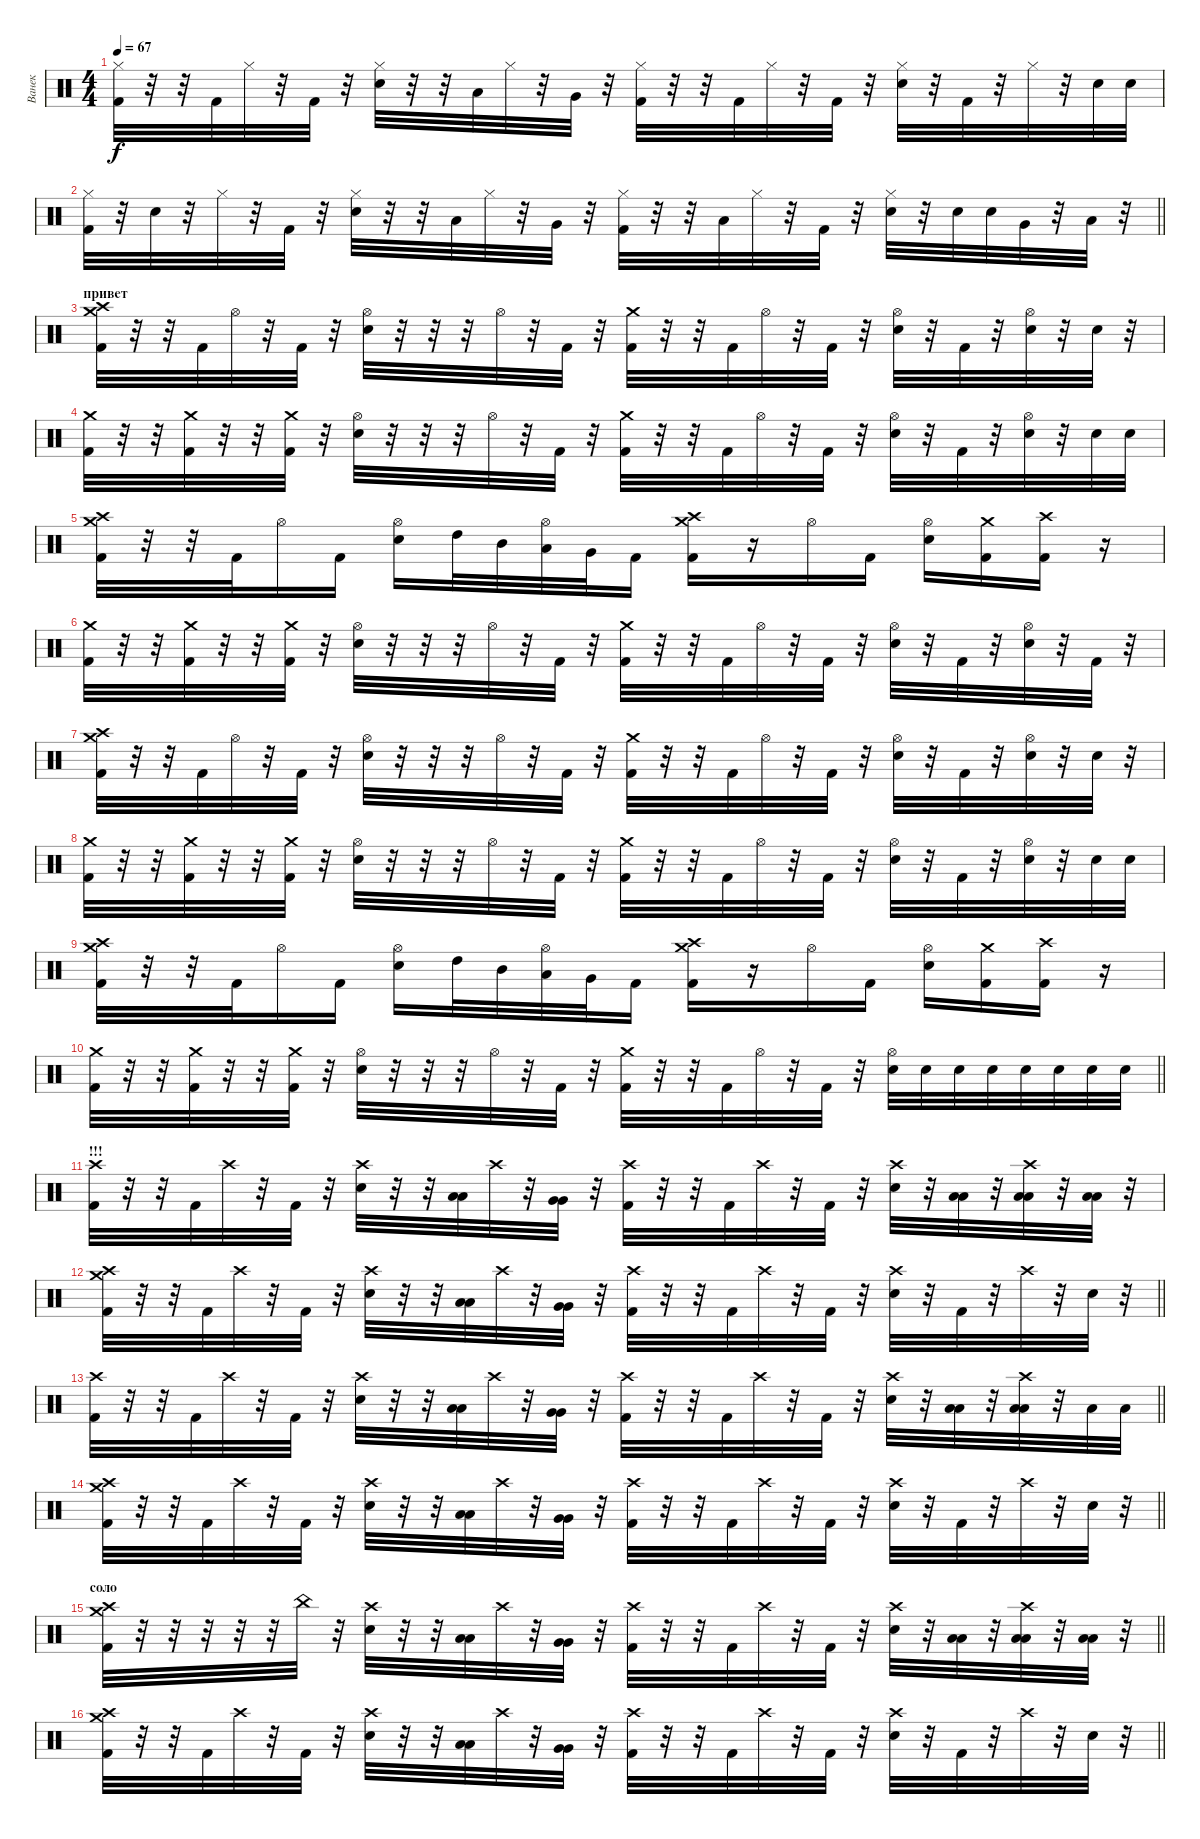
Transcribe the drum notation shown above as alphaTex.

\track ("Ванек" "Ванек") {instrument percussion}
\staff {score}
\articulation defaults
\ts (4 4)
\tempo 67
\clef neutral
\ks c
("Hi-Hat (closed)" "Kick (hit) 2").32{dy f} r.32 r.32 "Kick (hit) 2".32 "Hi-Hat (closed)".32 r.32 "Kick (hit) 2".32 r.32 ("Hi-Hat (closed)" "Snare (hit) 2").32 r.32 r.32 "Low Tom (hit)".32 "Hi-Hat (closed)".32 r.32 "Very Low Tom (hit)".32 r.32 ("Hi-Hat (closed)" "Kick (hit) 2").32 r.32 r.32 "Kick (hit) 2".32 "Hi-Hat (closed)".32 r.32 "Kick (hit) 2".32 r.32 ("Hi-Hat (closed)" "Snare (hit) 2").32 r.32 "Kick (hit) 2".32 r.32 "Hi-Hat (closed)".32 r.32 "Snare (hit) 2".32 "Snare (hit) 2".32 |
\barLineRight lightlight
("Hi-Hat (closed)" "Kick (hit) 2").32 r.32 "Snare (hit) 2".32 r.32 "Hi-Hat (closed)".32 r.32 "Kick (hit) 2".32 r.32 ("Hi-Hat (closed)" "Snare (hit) 2").32 r.32 r.32 "Low Tom (hit)".32 "Hi-Hat (closed)".32 r.32 "Very Low Tom (hit)".32 r.32 ("Hi-Hat (closed)" "Kick (hit) 2").32 r.32 r.32 "Low Tom (hit)".32 "Hi-Hat (closed)".32 r.32 "Kick (hit) 2".32 r.32 ("Hi-Hat (closed)" "Snare (hit) 2").32 r.32 "Snare (hit) 2".32 "Snare (hit) 2".32 "Very Low Tom (hit)".32 r.32 "Low Tom (hit)".32 r.32 |
\section ("" "привет")
("Crash high (hit)" "Crash medium (hit)" "Kick (hit) 2").32 r.32 r.32 "Kick (hit) 2".32 "Hi-Hat (open)".32 r.32 "Kick (hit) 2".32 r.32 ("Hi-Hat (open)" "Snare (hit) 2").32 r.32 r.32 r.32 "Hi-Hat (open)".32 r.32 "Kick (hit) 2".32 r.32 ("Crash medium (hit)" "Kick (hit) 2").32 r.32 r.32 "Kick (hit) 2".32 "Hi-Hat (open)".32 r.32 "Kick (hit) 2".32 r.32 ("Hi-Hat (open)" "Snare (hit) 2").32 r.32 "Kick (hit) 2".32 r.32 ("Hi-Hat (open)" "Snare (hit) 2").32 r.32 "Snare (hit) 2".32 r.32 |
("Crash medium (hit)" "Kick (hit) 2").32 r.32 r.32 ("Crash medium (hit)" "Kick (hit) 2").32 r.32 r.32 ("Crash medium (hit)" "Kick (hit) 2").32 r.32 ("Hi-Hat (open)" "Snare (hit) 2").32 r.32 r.32 r.32 "Hi-Hat (open)".32 r.32 "Kick (hit) 2".32 r.32 ("Crash medium (hit)" "Kick (hit) 2").32 r.32 r.32 "Kick (hit) 2".32 "Hi-Hat (open)".32 r.32 "Kick (hit) 2".32 r.32 ("Hi-Hat (open)" "Snare (hit) 2").32 r.32 "Kick (hit) 2".32 r.32 ("Hi-Hat (open)" "Snare (hit) 2").32 r.32 "Snare (hit) 2".32 "Snare (hit) 2".32 |
("Crash medium (hit)" "Crash high (hit)" "Kick (hit) 2").32 r.32 r.32 "Kick (hit) 2".32 "Hi-Hat (open)".16 "Kick (hit) 2".16 ("Hi-Hat (open)" "Snare (hit) 2").16 "High Tom (hit)".32 "Mid Tom (hit)".32 ("Hi-Hat (open)" "Low Tom (hit)").32 "Very Low Tom (hit)".32 "Kick (hit) 2".16 ("Crash medium (hit)" "Crash high (hit)" "Kick (hit) 2").16 r.16 "Hi-Hat (open)".16 "Kick (hit) 2".16 ("Hi-Hat (open)" "Snare (hit) 2").16 ("Crash medium (hit)" "Kick (hit) 2").16 ("Crash high (hit)" "Kick (hit) 2").16 r.16 |
("Crash medium (hit)" "Kick (hit) 2").32 r.32 r.32 ("Crash medium (hit)" "Kick (hit) 2").32 r.32 r.32 ("Crash medium (hit)" "Kick (hit) 2").32 r.32 ("Hi-Hat (open)" "Snare (hit) 2").32 r.32 r.32 r.32 "Hi-Hat (open)".32 r.32 "Kick (hit) 2".32 r.32 ("Crash medium (hit)" "Kick (hit) 2").32 r.32 r.32 "Kick (hit) 2".32 "Hi-Hat (open)".32 r.32 "Kick (hit) 2".32 r.32 ("Hi-Hat (open)" "Snare (hit) 2").32 r.32 "Kick (hit) 2".32 r.32 ("Hi-Hat (open)" "Snare (hit) 2").32 r.32 "Kick (hit) 2".32 r.32 |
("Crash high (hit)" "Crash medium (hit)" "Kick (hit) 2").32 r.32 r.32 "Kick (hit) 2".32 "Hi-Hat (open)".32 r.32 "Kick (hit) 2".32 r.32 ("Hi-Hat (open)" "Snare (hit) 2").32 r.32 r.32 r.32 "Hi-Hat (open)".32 r.32 "Kick (hit) 2".32 r.32 ("Crash medium (hit)" "Kick (hit) 2").32 r.32 r.32 "Kick (hit) 2".32 "Hi-Hat (open)".32 r.32 "Kick (hit) 2".32 r.32 ("Hi-Hat (open)" "Snare (hit) 2").32 r.32 "Kick (hit) 2".32 r.32 ("Hi-Hat (open)" "Snare (hit) 2").32 r.32 "Snare (hit) 2".32 r.32 |
("Crash medium (hit)" "Kick (hit) 2").32 r.32 r.32 ("Crash medium (hit)" "Kick (hit) 2").32 r.32 r.32 ("Crash medium (hit)" "Kick (hit) 2").32 r.32 ("Hi-Hat (open)" "Snare (hit) 2").32 r.32 r.32 r.32 "Hi-Hat (open)".32 r.32 "Kick (hit) 2".32 r.32 ("Crash medium (hit)" "Kick (hit) 2").32 r.32 r.32 "Kick (hit) 2".32 "Hi-Hat (open)".32 r.32 "Kick (hit) 2".32 r.32 ("Hi-Hat (open)" "Snare (hit) 2").32 r.32 "Kick (hit) 2".32 r.32 ("Hi-Hat (open)" "Snare (hit) 2").32 r.32 "Snare (hit) 2".32 "Snare (hit) 2".32 |
("Crash medium (hit)" "Crash high (hit)" "Kick (hit) 2").32 r.32 r.32 "Kick (hit) 2".32 "Hi-Hat (open)".16 "Kick (hit) 2".16 ("Hi-Hat (open)" "Snare (hit) 2").16 "High Tom (hit)".32 "Mid Tom (hit)".32 ("Hi-Hat (open)" "Low Tom (hit)").32 "Very Low Tom (hit)".32 "Kick (hit) 2".16 ("Crash medium (hit)" "Crash high (hit)" "Kick (hit) 2").16 r.16 "Hi-Hat (open)".16 "Kick (hit) 2".16 ("Hi-Hat (open)" "Snare (hit) 2").16 ("Crash medium (hit)" "Kick (hit) 2").16 ("Crash high (hit)" "Kick (hit) 2").16 r.16 |
\barLineRight lightlight
("Crash medium (hit)" "Kick (hit) 2").32 r.32 r.32 ("Crash medium (hit)" "Kick (hit) 2").32 r.32 r.32 ("Crash medium (hit)" "Kick (hit) 2").32 r.32 ("Hi-Hat (open)" "Snare (hit) 2").32 r.32 r.32 r.32 "Hi-Hat (open)".32 r.32 "Kick (hit) 2".32 r.32 ("Crash medium (hit)" "Kick (hit) 2").32 r.32 r.32 "Kick (hit) 2".32 "Hi-Hat (open)".32 r.32 "Kick (hit) 2".32 r.32 ("Hi-Hat (open)" "Snare (hit) 2").32 "Snare (hit) 2".32 "Snare (hit) 2".32 "Snare (hit) 2".32 "Snare (hit) 2".32 "Snare (hit) 2".32 "Snare (hit) 2".32 "Snare (hit) 2".32 |
\section ("" "!!!")
("Crash high (hit)" "Kick (hit) 2").32 r.32 r.32 "Kick (hit) 2".32 "Crash high (hit)".32 r.32 "Kick (hit) 2".32 r.32 ("Crash high (hit)" "Snare (hit) 2").32 r.32 r.32 ("Low Tom (hit)" "Low Tom (hit)").32 "Crash high (hit)".32 r.32 ("Very Low Tom (hit)" "Very Low Tom (hit)").32 r.32 ("Crash high (hit)" "Kick (hit) 2").32 r.32 r.32 "Kick (hit) 2".32 "Crash high (hit)".32 r.32 "Kick (hit) 2".32 r.32 ("Crash high (hit)" "Snare (hit) 2").32 r.32 ("Low Tom (hit)" "Low Tom (hit)").32 r.32 ("Crash high (hit)" "Low Tom (hit)" "Low Tom (hit)").32 r.32 ("Low Tom (hit)" "Low Tom (hit)").32 r.32 |
\barLineRight lightlight
("Crash high (hit)" "Crash medium (hit)" "Kick (hit) 2").32 r.32 r.32 "Kick (hit) 2".32 "Crash high (hit)".32 r.32 "Kick (hit) 2".32 r.32 ("Crash high (hit)" "Snare (hit) 2").32 r.32 r.32 ("Low Tom (hit)" "Low Tom (hit)").32 "Crash high (hit)".32 r.32 ("Very Low Tom (hit)" "Very Low Tom (hit)").32 r.32 ("Crash high (hit)" "Kick (hit) 2").32 r.32 r.32 "Kick (hit) 2".32 "Crash high (hit)".32 r.32 "Kick (hit) 2".32 r.32 ("Crash high (hit)" "Snare (hit) 2").32 r.32 "Kick (hit) 2".32 r.32 "Crash high (hit)".32 r.32 "Snare (hit) 2".32 r.32 |
\barLineRight lightlight
("Crash high (hit)" "Kick (hit) 2").32 r.32 r.32 "Kick (hit) 2".32 "Crash high (hit)".32 r.32 "Kick (hit) 2".32 r.32 ("Crash high (hit)" "Snare (hit) 2").32 r.32 r.32 ("Low Tom (hit)" "Low Tom (hit)").32 "Crash high (hit)".32 r.32 ("Very Low Tom (hit)" "Very Low Tom (hit)").32 r.32 ("Crash high (hit)" "Kick (hit) 2").32 r.32 r.32 "Kick (hit) 2".32 "Crash high (hit)".32 r.32 "Kick (hit) 2".32 r.32 ("Crash high (hit)" "Snare (hit) 2").32 r.32 ("Low Tom (hit)" "Low Tom (hit)").32 r.32 ("Crash high (hit)" "Low Tom (hit)" "Low Tom (hit)").32 r.32 "Low Tom (hit)".32 "Low Tom (hit)".32 |
\barLineRight lightlight
("Crash high (hit)" "Crash medium (hit)" "Kick (hit) 2").32 r.32 r.32 "Kick (hit) 2".32 "Crash high (hit)".32 r.32 "Kick (hit) 2".32 r.32 ("Crash high (hit)" "Snare (hit) 2").32 r.32 r.32 ("Low Tom (hit)" "Low Tom (hit)").32 "Crash high (hit)".32 r.32 ("Very Low Tom (hit)" "Very Low Tom (hit)").32 r.32 ("Crash high (hit)" "Kick (hit) 2").32 r.32 r.32 "Kick (hit) 2".32 "Crash high (hit)".32 r.32 "Kick (hit) 2".32 r.32 ("Crash high (hit)" "Snare (hit) 2").32 r.32 "Kick (hit) 2".32 r.32 "Crash high (hit)".32 r.32 "Snare (hit) 2".32 r.32 |
\section ("" "соло")
\barLineRight lightlight
("Crash high (hit)" "Crash medium (hit)" "Kick (hit) 2").32 r.32 r.32 r.32 r.32 r.32 "China (hit)".32 r.32 ("Crash high (hit)" "Snare (hit) 2").32 r.32 r.32 ("Low Tom (hit)" "Low Tom (hit)").32 "Crash high (hit)".32 r.32 ("Very Low Tom (hit)" "Very Low Tom (hit)").32 r.32 ("Crash high (hit)" "Kick (hit) 2").32 r.32 r.32 "Kick (hit) 2".32 "Crash high (hit)".32 r.32 "Kick (hit) 2".32 r.32 ("Crash high (hit)" "Snare (hit) 2").32 r.32 ("Low Tom (hit)" "Low Tom (hit)").32 r.32 ("Crash high (hit)" "Low Tom (hit)" "Low Tom (hit)").32 r.32 ("Low Tom (hit)" "Low Tom (hit)").32 r.32 |
\barLineRight lightlight
("Crash high (hit)" "Crash medium (hit)" "Kick (hit) 2").32 r.32 r.32 "Kick (hit) 2".32 "Crash high (hit)".32 r.32 "Kick (hit) 2".32 r.32 ("Crash high (hit)" "Snare (hit) 2").32 r.32 r.32 ("Low Tom (hit)" "Low Tom (hit)").32 "Crash high (hit)".32 r.32 ("Very Low Tom (hit)" "Very Low Tom (hit)").32 r.32 ("Crash high (hit)" "Kick (hit) 2").32 r.32 r.32 "Kick (hit) 2".32 "Crash high (hit)".32 r.32 "Kick (hit) 2".32 r.32 ("Crash high (hit)" "Snare (hit) 2").32 r.32 "Kick (hit) 2".32 r.32 "Crash high (hit)".32 r.32 "Snare (hit) 2".32 r.32
